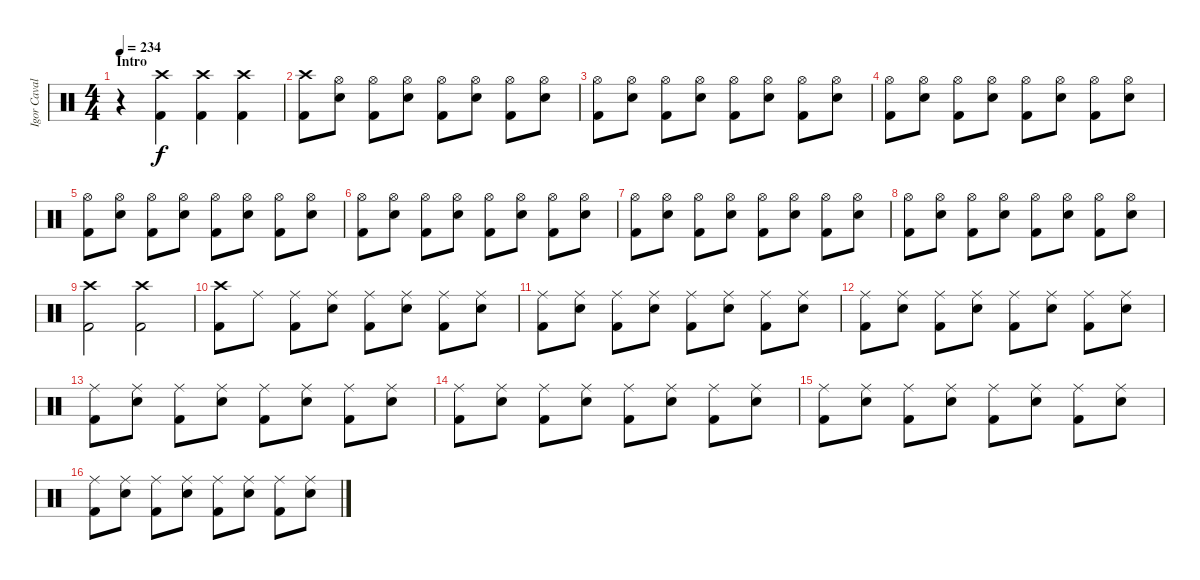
\track ("Igor Cavalera" "Igor Caval") {instrument percussion}
\staff {score}
\articulation defaults
\ts (4 4)
\section ("" "Intro")
\tempo 234
\clef neutral
\ks c
r.4{dy f} ("Kick (hit) 2" "Crash high (hit)").4 ("Kick (hit) 2" "Crash high (hit)").4 ("Kick (hit) 2" "Crash high (hit)").4 |
("Kick (hit) 2" "Crash high (hit)").8 ("Snare (hit) 2" "Hi-Hat (open)").8 ("Kick (hit) 2" "Hi-Hat (open)").8 ("Snare (hit) 2" "Hi-Hat (open)").8 ("Kick (hit) 2" "Hi-Hat (open)").8 ("Snare (hit) 2" "Hi-Hat (open)").8 ("Kick (hit) 2" "Hi-Hat (open)").8 ("Snare (hit) 2" "Hi-Hat (open)").8 |
("Kick (hit) 2" "Hi-Hat (open)").8 ("Snare (hit) 2" "Hi-Hat (open)").8 ("Kick (hit) 2" "Hi-Hat (open)").8 ("Snare (hit) 2" "Hi-Hat (open)").8 ("Kick (hit) 2" "Hi-Hat (open)").8 ("Snare (hit) 2" "Hi-Hat (open)").8 ("Kick (hit) 2" "Hi-Hat (open)").8 ("Snare (hit) 2" "Hi-Hat (open)").8 |
("Kick (hit) 2" "Hi-Hat (open)").8 ("Snare (hit) 2" "Hi-Hat (open)").8 ("Kick (hit) 2" "Hi-Hat (open)").8 ("Snare (hit) 2" "Hi-Hat (open)").8 ("Kick (hit) 2" "Hi-Hat (open)").8 ("Snare (hit) 2" "Hi-Hat (open)").8 ("Kick (hit) 2" "Hi-Hat (open)").8 ("Snare (hit) 2" "Hi-Hat (open)").8 |
("Kick (hit) 2" "Hi-Hat (open)").8 ("Snare (hit) 2" "Hi-Hat (open)").8 ("Kick (hit) 2" "Hi-Hat (open)").8 ("Snare (hit) 2" "Hi-Hat (open)").8 ("Kick (hit) 2" "Hi-Hat (open)").8 ("Snare (hit) 2" "Hi-Hat (open)").8 ("Kick (hit) 2" "Hi-Hat (open)").8 ("Snare (hit) 2" "Hi-Hat (open)").8 |
("Kick (hit) 2" "Hi-Hat (open)").8 ("Snare (hit) 2" "Hi-Hat (open)").8 ("Kick (hit) 2" "Hi-Hat (open)").8 ("Snare (hit) 2" "Hi-Hat (open)").8 ("Kick (hit) 2" "Hi-Hat (open)").8 ("Snare (hit) 2" "Hi-Hat (open)").8 ("Kick (hit) 2" "Hi-Hat (open)").8 ("Snare (hit) 2" "Hi-Hat (open)").8 |
("Kick (hit) 2" "Hi-Hat (open)").8 ("Snare (hit) 2" "Hi-Hat (open)").8 ("Kick (hit) 2" "Hi-Hat (open)").8 ("Snare (hit) 2" "Hi-Hat (open)").8 ("Kick (hit) 2" "Hi-Hat (open)").8 ("Snare (hit) 2" "Hi-Hat (open)").8 ("Kick (hit) 2" "Hi-Hat (open)").8 ("Snare (hit) 2" "Hi-Hat (open)").8 |
("Kick (hit) 2" "Hi-Hat (open)").8 ("Snare (hit) 2" "Hi-Hat (open)").8 ("Kick (hit) 2" "Hi-Hat (open)").8 ("Snare (hit) 2" "Hi-Hat (open)").8 ("Kick (hit) 2" "Hi-Hat (open)").8 ("Snare (hit) 2" "Hi-Hat (open)").8 ("Kick (hit) 2" "Hi-Hat (open)").8 ("Snare (hit) 2" "Hi-Hat (open)").8 |
("Kick (hit) 2" "Crash high (hit)").2 ("Kick (hit) 2" "Crash high (hit)").2 |
("Kick (hit) 2" "Crash high (hit)").8 "Ride (middle)".8 ("Kick (hit) 2" "Ride (middle)").8 ("Snare (hit) 2" "Ride (middle)").8 ("Kick (hit) 2" "Ride (middle)").8 ("Snare (hit) 2" "Ride (middle)").8 ("Kick (hit) 2" "Ride (middle)").8 ("Snare (hit) 2" "Ride (middle)").8 |
("Kick (hit) 2" "Ride (middle)").8 ("Snare (hit) 2" "Ride (middle)").8 ("Kick (hit) 2" "Ride (middle)").8 ("Snare (hit) 2" "Ride (middle)").8 ("Kick (hit) 2" "Ride (middle)").8 ("Snare (hit) 2" "Ride (middle)").8 ("Kick (hit) 2" "Ride (middle)").8 ("Snare (hit) 2" "Ride (middle)").8 |
("Kick (hit) 2" "Ride (middle)").8 ("Snare (hit) 2" "Ride (middle)").8 ("Kick (hit) 2" "Ride (middle)").8 ("Snare (hit) 2" "Ride (middle)").8 ("Kick (hit) 2" "Ride (middle)").8 ("Snare (hit) 2" "Ride (middle)").8 ("Kick (hit) 2" "Ride (middle)").8 ("Snare (hit) 2" "Ride (middle)").8 |
("Kick (hit) 2" "Ride (middle)").8 ("Snare (hit) 2" "Ride (middle)").8 ("Kick (hit) 2" "Ride (middle)").8 ("Snare (hit) 2" "Ride (middle)").8 ("Kick (hit) 2" "Ride (middle)").8 ("Snare (hit) 2" "Ride (middle)").8 ("Kick (hit) 2" "Ride (middle)").8 ("Snare (hit) 2" "Ride (middle)").8 |
("Kick (hit) 2" "Ride (middle)").8 ("Snare (hit) 2" "Ride (middle)").8 ("Kick (hit) 2" "Ride (middle)").8 ("Snare (hit) 2" "Ride (middle)").8 ("Kick (hit) 2" "Ride (middle)").8 ("Snare (hit) 2" "Ride (middle)").8 ("Kick (hit) 2" "Ride (middle)").8 ("Snare (hit) 2" "Ride (middle)").8 |
("Kick (hit) 2" "Ride (middle)").8 ("Snare (hit) 2" "Ride (middle)").8 ("Kick (hit) 2" "Ride (middle)").8 ("Snare (hit) 2" "Ride (middle)").8 ("Kick (hit) 2" "Ride (middle)").8 ("Snare (hit) 2" "Ride (middle)").8 ("Kick (hit) 2" "Ride (middle)").8 ("Snare (hit) 2" "Ride (middle)").8 |
("Kick (hit) 2" "Ride (middle)").8 ("Snare (hit) 2" "Ride (middle)").8 ("Kick (hit) 2" "Ride (middle)").8 ("Snare (hit) 2" "Ride (middle)").8 ("Kick (hit) 2" "Ride (middle)").8 ("Snare (hit) 2" "Ride (middle)").8 ("Kick (hit) 2" "Ride (middle)").8 ("Snare (hit) 2" "Ride (middle)").8
